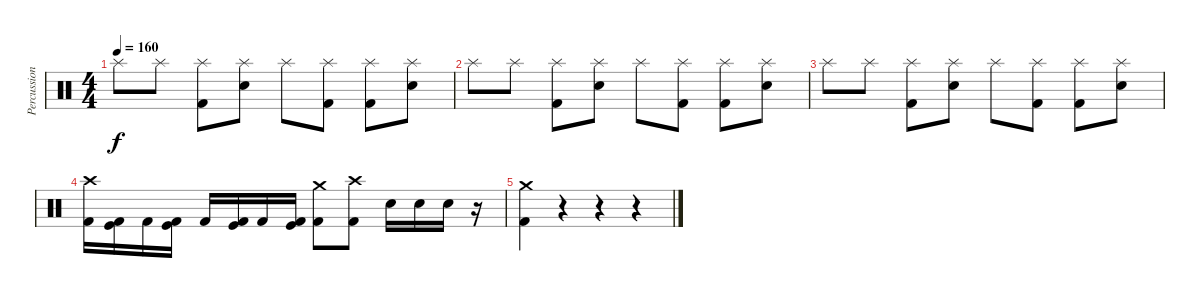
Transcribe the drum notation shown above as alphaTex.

\track ("Percussion" "Percussion") {instrument percussion}
\staff {score}
\articulation defaults
\ts (4 4)
\tempo 160
\clef neutral
\ks c "Splash (hit)".8{dy f} "Splash (hit)".8
("Splash (hit)" "Kick (hit) 2").8 ("Splash (hit)" "Electric Snare (hit)").8 "Splash (hit)".8 ("Splash (hit)" "Kick (hit) 2").8 ("Splash (hit)" "Kick (hit) 2").8 ("Splash (hit)" "Electric Snare (hit)").8 |
"Splash (hit)".8 "Splash (hit)".8 ("Splash (hit)" "Kick (hit) 2").8 ("Splash (hit)" "Electric Snare (hit)").8 "Splash (hit)".8 ("Splash (hit)" "Kick (hit) 2").8 ("Splash (hit)" "Kick (hit) 2").8 ("Splash (hit)" "Electric Snare (hit)").8 |
"Splash (hit)".8 "Splash (hit)".8 ("Splash (hit)" "Kick (hit) 2").8 ("Splash (hit)" "Electric Snare (hit)").8 "Splash (hit)".8 ("Splash (hit)" "Kick (hit) 2").8 ("Splash (hit)" "Kick (hit) 2").8 ("Splash (hit)" "Electric Snare (hit)").8 |
("Crash high (hit)" "Kick (hit) 2").16 ("Kick (hit)" "Kick (hit) 2").16 "Kick (hit) 2".16 ("Kick (hit)" "Kick (hit) 2").16 "Kick (hit) 2".16 ("Kick (hit)" "Kick (hit) 2").16 "Kick (hit) 2".16 ("Kick (hit)" "Kick (hit) 2").16 ("Crash medium (hit)" "Kick (hit) 2").8 ("Crash high (hit)" "Kick (hit) 2").8 "Electric Snare (hit)".16 "Electric Snare (hit)".16 "Electric Snare (hit)".16 r.16 |
("Crash medium (hit)" "Kick (hit) 2").4 r.4 r.4 r.4
